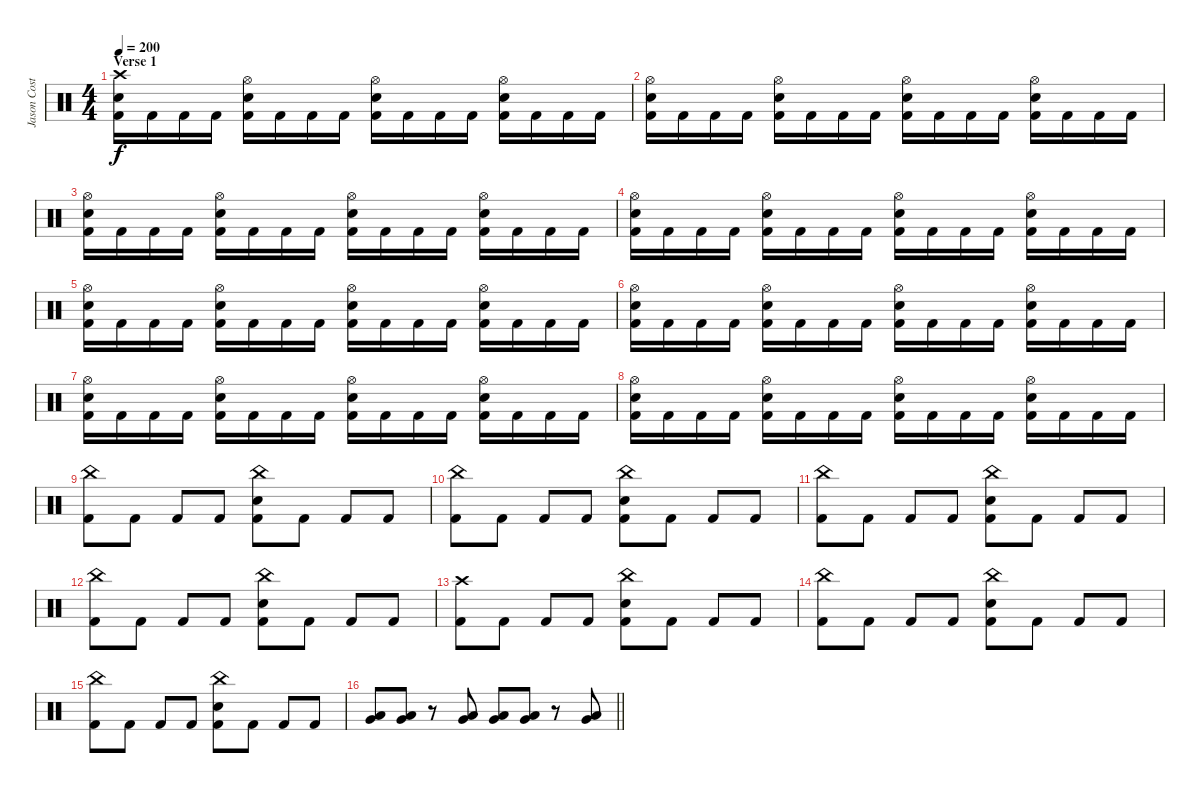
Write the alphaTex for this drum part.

\track ("Jason Costa" "Jason Cost") {instrument percussion}
\staff {score}
\articulation defaults
\ts (4 4)
\section ("" "Verse 1")
\tempo 200
\clef neutral
\ks c
("Crash high (hit)" "Electric Snare (hit)" "Kick (hit) 2").16{dy f} "Kick (hit) 2".16 "Kick (hit) 2".16 "Kick (hit) 2".16 ("Hi-Hat (open)" "Electric Snare (hit)" "Kick (hit) 2").16 "Kick (hit) 2".16 "Kick (hit) 2".16 "Kick (hit) 2".16 ("Hi-Hat (open)" "Electric Snare (hit)" "Kick (hit) 2").16 "Kick (hit) 2".16 "Kick (hit) 2".16 "Kick (hit) 2".16 ("Hi-Hat (open)" "Electric Snare (hit)" "Kick (hit) 2").16 "Kick (hit) 2".16 "Kick (hit) 2".16 "Kick (hit) 2".16 |
("Hi-Hat (open)" "Electric Snare (hit)" "Kick (hit) 2").16 "Kick (hit) 2".16 "Kick (hit) 2".16 "Kick (hit) 2".16 ("Hi-Hat (open)" "Electric Snare (hit)" "Kick (hit) 2").16 "Kick (hit) 2".16 "Kick (hit) 2".16 "Kick (hit) 2".16 ("Hi-Hat (open)" "Electric Snare (hit)" "Kick (hit) 2").16 "Kick (hit) 2".16 "Kick (hit) 2".16 "Kick (hit) 2".16 ("Hi-Hat (open)" "Electric Snare (hit)" "Kick (hit) 2").16 "Kick (hit) 2".16 "Kick (hit) 2".16 "Kick (hit) 2".16 |
("Hi-Hat (open)" "Electric Snare (hit)" "Kick (hit) 2").16 "Kick (hit) 2".16 "Kick (hit) 2".16 "Kick (hit) 2".16 ("Hi-Hat (open)" "Electric Snare (hit)" "Kick (hit) 2").16 "Kick (hit) 2".16 "Kick (hit) 2".16 "Kick (hit) 2".16 ("Hi-Hat (open)" "Electric Snare (hit)" "Kick (hit) 2").16 "Kick (hit) 2".16 "Kick (hit) 2".16 "Kick (hit) 2".16 ("Hi-Hat (open)" "Electric Snare (hit)" "Kick (hit) 2").16 "Kick (hit) 2".16 "Kick (hit) 2".16 "Kick (hit) 2".16 |
("Hi-Hat (open)" "Electric Snare (hit)" "Kick (hit) 2").16 "Kick (hit) 2".16 "Kick (hit) 2".16 "Kick (hit) 2".16 ("Hi-Hat (open)" "Electric Snare (hit)" "Kick (hit) 2").16 "Kick (hit) 2".16 "Kick (hit) 2".16 "Kick (hit) 2".16 ("Hi-Hat (open)" "Electric Snare (hit)" "Kick (hit) 2").16 "Kick (hit) 2".16 "Kick (hit) 2".16 "Kick (hit) 2".16 ("Hi-Hat (open)" "Electric Snare (hit)" "Kick (hit) 2").16 "Kick (hit) 2".16 "Kick (hit) 2".16 "Kick (hit) 2".16 |
("Hi-Hat (open)" "Electric Snare (hit)" "Kick (hit) 2").16 "Kick (hit) 2".16 "Kick (hit) 2".16 "Kick (hit) 2".16 ("Hi-Hat (open)" "Electric Snare (hit)" "Kick (hit) 2").16 "Kick (hit) 2".16 "Kick (hit) 2".16 "Kick (hit) 2".16 ("Hi-Hat (open)" "Electric Snare (hit)" "Kick (hit) 2").16 "Kick (hit) 2".16 "Kick (hit) 2".16 "Kick (hit) 2".16 ("Hi-Hat (open)" "Electric Snare (hit)" "Kick (hit) 2").16 "Kick (hit) 2".16 "Kick (hit) 2".16 "Kick (hit) 2".16 |
("Hi-Hat (open)" "Electric Snare (hit)" "Kick (hit) 2").16 "Kick (hit) 2".16 "Kick (hit) 2".16 "Kick (hit) 2".16 ("Hi-Hat (open)" "Electric Snare (hit)" "Kick (hit) 2").16 "Kick (hit) 2".16 "Kick (hit) 2".16 "Kick (hit) 2".16 ("Hi-Hat (open)" "Electric Snare (hit)" "Kick (hit) 2").16 "Kick (hit) 2".16 "Kick (hit) 2".16 "Kick (hit) 2".16 ("Hi-Hat (open)" "Electric Snare (hit)" "Kick (hit) 2").16 "Kick (hit) 2".16 "Kick (hit) 2".16 "Kick (hit) 2".16 |
("Hi-Hat (open)" "Electric Snare (hit)" "Kick (hit) 2").16 "Kick (hit) 2".16 "Kick (hit) 2".16 "Kick (hit) 2".16 ("Hi-Hat (open)" "Electric Snare (hit)" "Kick (hit) 2").16 "Kick (hit) 2".16 "Kick (hit) 2".16 "Kick (hit) 2".16 ("Hi-Hat (open)" "Electric Snare (hit)" "Kick (hit) 2").16 "Kick (hit) 2".16 "Kick (hit) 2".16 "Kick (hit) 2".16 ("Hi-Hat (open)" "Electric Snare (hit)" "Kick (hit) 2").16 "Kick (hit) 2".16 "Kick (hit) 2".16 "Kick (hit) 2".16 |
("Hi-Hat (open)" "Electric Snare (hit)" "Kick (hit) 2").16 "Kick (hit) 2".16 "Kick (hit) 2".16 "Kick (hit) 2".16 ("Hi-Hat (open)" "Electric Snare (hit)" "Kick (hit) 2").16 "Kick (hit) 2".16 "Kick (hit) 2".16 "Kick (hit) 2".16 ("Hi-Hat (open)" "Electric Snare (hit)" "Kick (hit) 2").16 "Kick (hit) 2".16 "Kick (hit) 2".16 "Kick (hit) 2".16 ("Hi-Hat (open)" "Electric Snare (hit)" "Kick (hit) 2").16 "Kick (hit) 2".16 "Kick (hit) 2".16 "Kick (hit) 2".16 |
("China (hit)" "Kick (hit) 2").8 "Kick (hit) 2".8 "Kick (hit) 2".8 "Kick (hit) 2".8 ("China (hit)" "Electric Snare (hit)" "Kick (hit) 2").8 "Kick (hit) 2".8 "Kick (hit) 2".8 "Kick (hit) 2".8 |
("China (hit)" "Kick (hit) 2").8 "Kick (hit) 2".8 "Kick (hit) 2".8 "Kick (hit) 2".8 ("China (hit)" "Electric Snare (hit)" "Kick (hit) 2").8 "Kick (hit) 2".8 "Kick (hit) 2".8 "Kick (hit) 2".8 |
("China (hit)" "Kick (hit) 2").8 "Kick (hit) 2".8 "Kick (hit) 2".8 "Kick (hit) 2".8 ("China (hit)" "Electric Snare (hit)" "Kick (hit) 2").8 "Kick (hit) 2".8 "Kick (hit) 2".8 "Kick (hit) 2".8 |
("China (hit)" "Kick (hit) 2").8 "Kick (hit) 2".8 "Kick (hit) 2".8 "Kick (hit) 2".8 ("China (hit)" "Electric Snare (hit)" "Kick (hit) 2").8 "Kick (hit) 2".8 "Kick (hit) 2".8 "Kick (hit) 2".8 |
("Crash high (hit)" "Kick (hit) 2").8 "Kick (hit) 2".8 "Kick (hit) 2".8 "Kick (hit) 2".8 ("China (hit)" "Electric Snare (hit)" "Kick (hit) 2").8 "Kick (hit) 2".8 "Kick (hit) 2".8 "Kick (hit) 2".8 |
("China (hit)" "Kick (hit) 2").8 "Kick (hit) 2".8 "Kick (hit) 2".8 "Kick (hit) 2".8 ("China (hit)" "Electric Snare (hit)" "Kick (hit) 2").8 "Kick (hit) 2".8 "Kick (hit) 2".8 "Kick (hit) 2".8 |
("China (hit)" "Kick (hit) 2").8 "Kick (hit) 2".8 "Kick (hit) 2".8 "Kick (hit) 2".8 ("China (hit)" "Electric Snare (hit)" "Kick (hit) 2").8 "Kick (hit) 2".8 "Kick (hit) 2".8 "Kick (hit) 2".8 |
\barLineRight lightlight
("Low Tom (hit)" "Very Low Tom (hit)").8 ("Low Tom (hit)" "Very Low Tom (hit)").8 r.8 ("Low Tom (hit)" "Very Low Tom (hit)").8 ("Low Tom (hit)" "Very Low Tom (hit)").8 ("Low Tom (hit)" "Very Low Tom (hit)").8 r.8 ("Low Tom (hit)" "Very Low Tom (hit)").8
